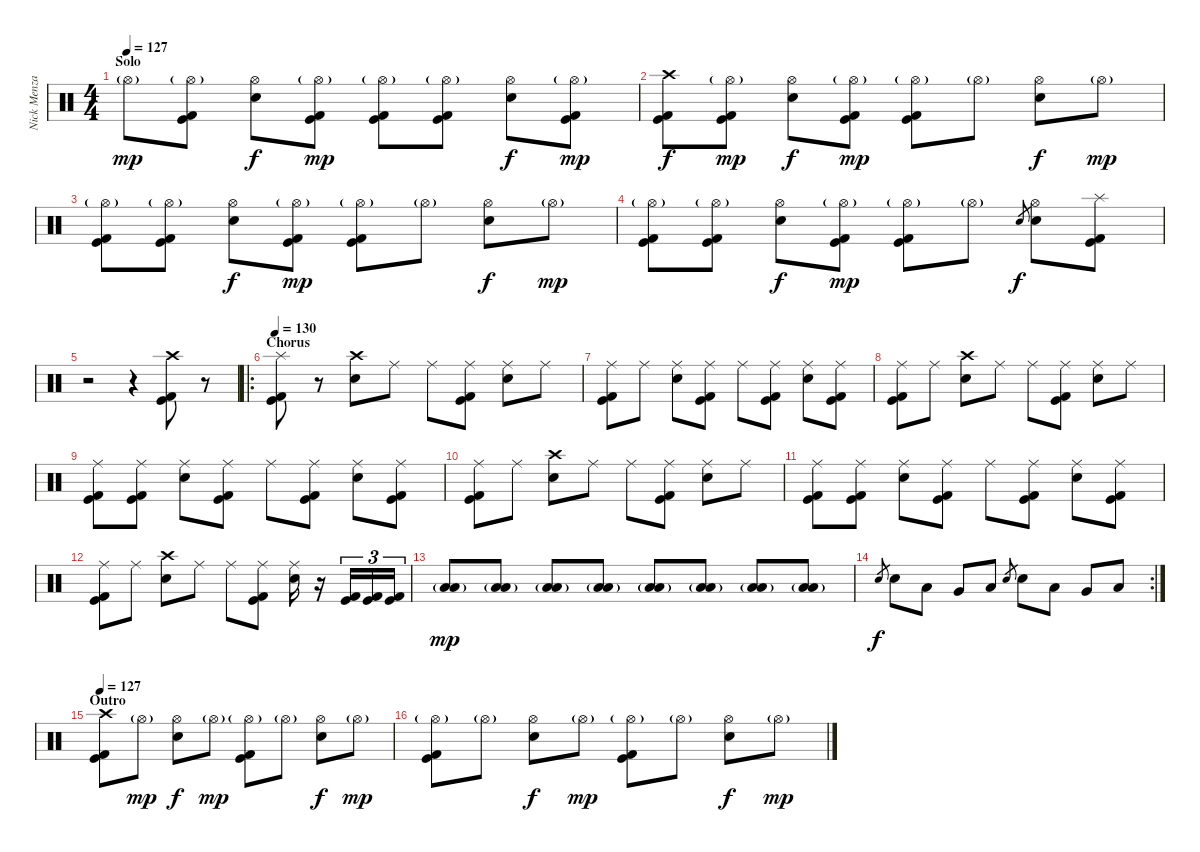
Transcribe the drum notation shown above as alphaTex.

\track ("Nick Menza (Drums)" "Nick Menza") {instrument percussion}
\staff {score}
\articulation defaults
\ts (4 4)
\section ("" "Solo")
\tempo 127
\clef neutral
\ks c "Hi-Hat (open)"{g}.8{dy mp}
("Hi-Hat (open)"{g} "Kick (hit)" "Kick (hit) 2").8 ("Hi-Hat (open)" "Electric Snare (hit)").8{dy f} ("Hi-Hat (open)"{g} "Kick (hit)" "Kick (hit) 2").8{dy mp} ("Hi-Hat (open)"{g} "Kick (hit)" "Kick (hit) 2").8 ("Hi-Hat (open)"{g} "Kick (hit)" "Kick (hit) 2").8 ("Hi-Hat (open)" "Electric Snare (hit)").8{dy f} ("Hi-Hat (open)"{g} "Kick (hit)" "Kick (hit) 2").8{dy mp} |
("Crash high (hit)" "Kick (hit)" "Kick (hit) 2").8{dy f} ("Hi-Hat (open)"{g} "Kick (hit)" "Kick (hit) 2").8{dy mp} ("Hi-Hat (open)" "Electric Snare (hit)").8{dy f} ("Hi-Hat (open)"{g} "Kick (hit)" "Kick (hit) 2").8{dy mp} ("Hi-Hat (open)"{g} "Kick (hit)" "Kick (hit) 2").8 "Hi-Hat (open)"{g}.8 ("Hi-Hat (open)" "Electric Snare (hit)").8{dy f} "Hi-Hat (open)"{g}.8{dy mp} |
("Hi-Hat (open)"{g} "Kick (hit)" "Kick (hit) 2").8 ("Hi-Hat (open)"{g} "Kick (hit)" "Kick (hit) 2").8 ("Hi-Hat (open)" "Electric Snare (hit)").8{dy f} ("Hi-Hat (open)"{g} "Kick (hit)" "Kick (hit) 2").8{dy mp} ("Hi-Hat (open)"{g} "Kick (hit)" "Kick (hit) 2").8 "Hi-Hat (open)"{g}.8 ("Hi-Hat (open)" "Electric Snare (hit)").8{dy f} "Hi-Hat (open)"{g}.8{dy mp} |
("Hi-Hat (open)"{g} "Kick (hit)" "Kick (hit) 2").8 ("Hi-Hat (open)"{g} "Kick (hit)" "Kick (hit) 2").8 ("Hi-Hat (open)" "Electric Snare (hit)").8{dy f} ("Hi-Hat (open)"{g} "Kick (hit)" "Kick (hit) 2").8{dy mp} ("Hi-Hat (open)"{g} "Kick (hit)" "Kick (hit) 2").8 "Hi-Hat (open)"{g}.8 "Electric Snare (hit)".8{gr dy f} ("Hi-Hat (open)" "Electric Snare (hit)").8 ("Splash (hit)" "Kick (hit)" "Kick (hit) 2").8 |
r.2 r.4 ("Crash high (hit)" "Kick (hit)" "Kick (hit) 2").8 r.8 |
\ro
\section ("" "Chorus")
\tempo 130
("Splash (hit)" "Kick (hit)" "Kick (hit) 2").8 r.8 ("Crash high (hit)" "Electric Snare (hit)").8 "Ride (middle)".8 "Ride (middle)".8 ("Ride (middle)" "Kick (hit)" "Kick (hit) 2").8 ("Ride (middle)" "Electric Snare (hit)").8 "Ride (middle)".8 |
("Ride (middle)" "Kick (hit)" "Kick (hit) 2").8 "Ride (middle)".8 ("Ride (middle)" "Electric Snare (hit)").8 ("Ride (middle)" "Kick (hit)" "Kick (hit) 2").8 "Ride (middle)".8 ("Ride (middle)" "Kick (hit)" "Kick (hit) 2").8 ("Ride (middle)" "Electric Snare (hit)").8 ("Ride (middle)" "Kick (hit)" "Kick (hit) 2").8 |
("Ride (middle)" "Kick (hit)" "Kick (hit) 2").8 "Ride (middle)".8 ("Crash high (hit)" "Electric Snare (hit)").8 "Ride (middle)".8 "Ride (middle)".8 ("Ride (middle)" "Kick (hit)" "Kick (hit) 2").8 ("Ride (middle)" "Electric Snare (hit)").8 "Ride (middle)".8 |
("Ride (middle)" "Kick (hit)" "Kick (hit) 2").8 ("Ride (middle)" "Kick (hit)" "Kick (hit) 2").8 ("Ride (middle)" "Electric Snare (hit)").8 ("Ride (middle)" "Kick (hit)" "Kick (hit) 2").8 "Ride (middle)".8 ("Ride (middle)" "Kick (hit)" "Kick (hit) 2").8 ("Ride (middle)" "Electric Snare (hit)").8 ("Ride (middle)" "Kick (hit)" "Kick (hit) 2").8 |
("Ride (middle)" "Kick (hit)" "Kick (hit) 2").8 "Ride (middle)".8 ("Crash high (hit)" "Electric Snare (hit)").8 "Ride (middle)".8 "Ride (middle)".8 ("Ride (middle)" "Kick (hit)" "Kick (hit) 2").8 ("Ride (middle)" "Electric Snare (hit)").8 "Ride (middle)".8 |
("Ride (middle)" "Kick (hit)" "Kick (hit) 2").8 ("Ride (middle)" "Kick (hit)" "Kick (hit) 2").8 ("Ride (middle)" "Electric Snare (hit)").8 ("Ride (middle)" "Kick (hit)" "Kick (hit) 2").8 "Ride (middle)".8 ("Ride (middle)" "Kick (hit)" "Kick (hit) 2").8 ("Ride (middle)" "Electric Snare (hit)").8 ("Ride (middle)" "Kick (hit)" "Kick (hit) 2").8 |
("Ride (middle)" "Kick (hit)" "Kick (hit) 2").8 "Ride (middle)".8 ("Crash high (hit)" "Electric Snare (hit)").8 "Ride (middle)".8 "Ride (middle)".8 ("Ride (middle)" "Kick (hit)" "Kick (hit) 2").8 ("Ride (middle)" "Electric Snare (hit)").16 r.16 ("Kick (hit)" "Kick (hit) 2").16{tu (3 2)} ("Kick (hit)" "Kick (hit) 2").16{tu (3 2)} ("Kick (hit)" "Kick (hit) 2").16{tu (3 2)} |
("Low Tom (hit)"{g} "Low Floor Tom (hit)").8{dy mp} ("Low Tom (hit)"{g} "Low Floor Tom (hit)").8 ("Low Tom (hit)"{g} "Low Floor Tom (hit)").8 ("Low Tom (hit)"{g} "Low Floor Tom (hit)").8 ("Low Tom (hit)"{g} "Low Floor Tom (hit)").8 ("Low Tom (hit)"{g} "Low Floor Tom (hit)").8 ("Low Tom (hit)"{g} "Low Floor Tom (hit)").8 ("Low Tom (hit)"{g} "Low Floor Tom (hit)").8 |
\rc 2 "Electric Snare (hit)".8{gr dy f} "Electric Snare (hit)".8 "Low Tom (hit)".8 "Very Low Tom (hit)".8 "Low Floor Tom (hit)".8 "Electric Snare (hit)".8{gr} "Electric Snare (hit)".8 "Low Tom (hit)".8 "Very Low Tom (hit)".8 "Low Floor Tom (hit)".8
|
\section ("" "Outro")
\tempo 127
("Crash high (hit)" "Kick (hit)" "Kick (hit) 2").8 "Hi-Hat (open)"{g}.8{dy mp} ("Hi-Hat (open)" "Electric Snare (hit)").8{dy f} "Hi-Hat (open)"{g}.8{dy mp} ("Hi-Hat (open)"{g} "Kick (hit)" "Kick (hit) 2").8 "Hi-Hat (open)"{g}.8 ("Hi-Hat (open)" "Electric Snare (hit)").8{dy f} "Hi-Hat (open)"{g}.8{dy mp} |
("Hi-Hat (open)"{g} "Kick (hit)" "Kick (hit) 2").8 "Hi-Hat (open)"{g}.8 ("Hi-Hat (open)" "Electric Snare (hit)").8{dy f} "Hi-Hat (open)"{g}.8{dy mp} ("Hi-Hat (open)"{g} "Kick (hit)" "Kick (hit) 2").8 "Hi-Hat (open)"{g}.8 ("Hi-Hat (open)" "Electric Snare (hit)").8{dy f} "Hi-Hat (open)"{g}.8{dy mp}
